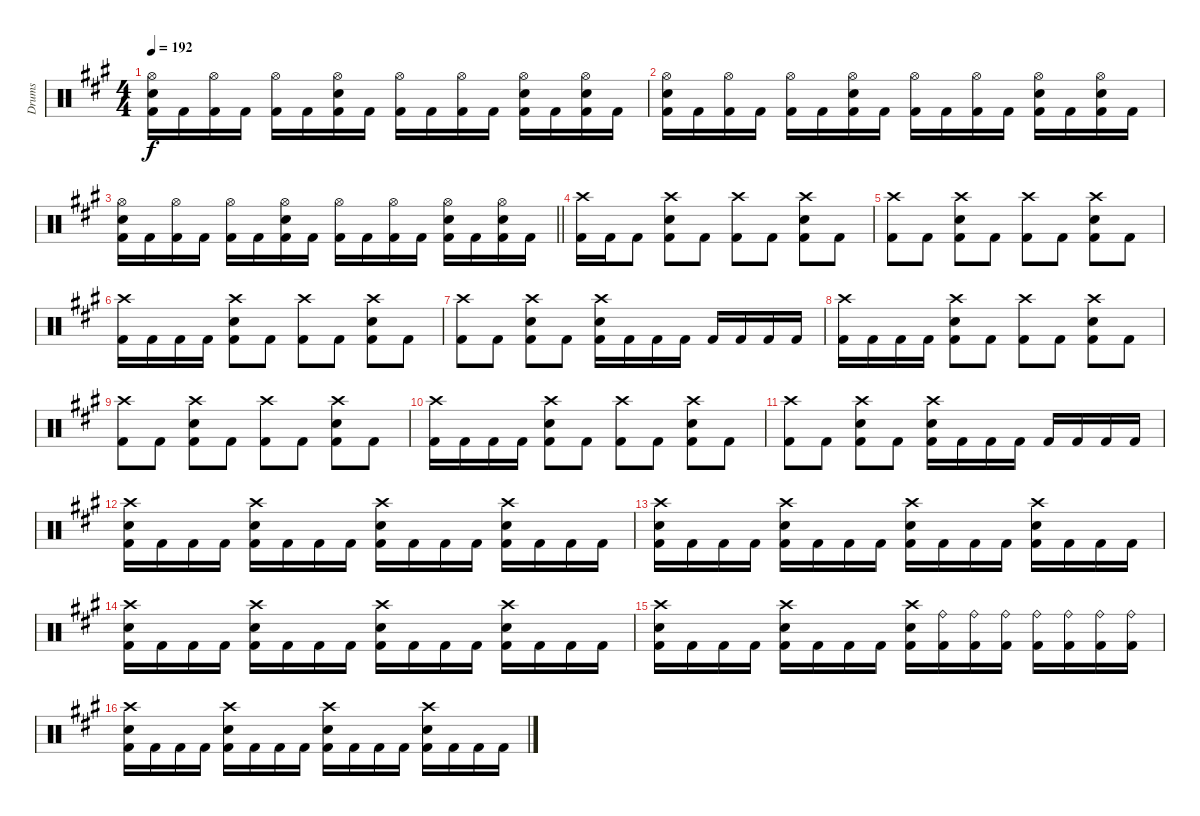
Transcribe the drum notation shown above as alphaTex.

\track ("Drums" "Drums") {instrument percussion}
\staff {score}
\articulation defaults
\ts (4 4)
\tempo 192
\clef neutral
\ks f#minor
("Hi-Hat (open)" "Snare (hit) 2" "Kick (hit) 2").16{dy f} "Kick (hit) 2".16 ("Hi-Hat (open)" "Kick (hit) 2").16 "Kick (hit) 2".16 ("Hi-Hat (open)" "Kick (hit) 2").16 "Kick (hit) 2".16 ("Hi-Hat (open)" "Snare (hit) 2" "Kick (hit) 2").16 "Kick (hit) 2".16 ("Hi-Hat (open)" "Kick (hit) 2").16 "Kick (hit) 2".16 ("Hi-Hat (open)" "Kick (hit) 2").16 "Kick (hit) 2".16 ("Hi-Hat (open)" "Snare (hit) 2" "Kick (hit) 2").16 "Kick (hit) 2".16 ("Hi-Hat (open)" "Snare (hit) 2" "Kick (hit) 2").16 "Kick (hit) 2".16 |
("Hi-Hat (open)" "Snare (hit) 2" "Kick (hit) 2").16 "Kick (hit) 2".16 ("Hi-Hat (open)" "Kick (hit) 2").16 "Kick (hit) 2".16 ("Hi-Hat (open)" "Kick (hit) 2").16 "Kick (hit) 2".16 ("Hi-Hat (open)" "Snare (hit) 2" "Kick (hit) 2").16 "Kick (hit) 2".16 ("Hi-Hat (open)" "Kick (hit) 2").16 "Kick (hit) 2".16 ("Hi-Hat (open)" "Kick (hit) 2").16 "Kick (hit) 2".16 ("Hi-Hat (open)" "Snare (hit) 2" "Kick (hit) 2").16 "Kick (hit) 2".16 ("Hi-Hat (open)" "Snare (hit) 2" "Kick (hit) 2").16 "Kick (hit) 2".16 |
\barLineRight lightlight
("Hi-Hat (open)" "Snare (hit) 2" "Kick (hit) 2").16 "Kick (hit) 2".16 ("Hi-Hat (open)" "Kick (hit) 2").16 "Kick (hit) 2".16 ("Hi-Hat (open)" "Kick (hit) 2").16 "Kick (hit) 2".16 ("Hi-Hat (open)" "Snare (hit) 2" "Kick (hit) 2").16 "Kick (hit) 2".16 ("Hi-Hat (open)" "Kick (hit) 2").16 "Kick (hit) 2".16 ("Hi-Hat (open)" "Kick (hit) 2").16 "Kick (hit) 2".16 ("Hi-Hat (open)" "Snare (hit) 2" "Kick (hit) 2").16 "Kick (hit) 2".16 ("Hi-Hat (open)" "Snare (hit) 2" "Kick (hit) 2").16 "Kick (hit) 2".16 |
("Crash high (hit)" "Kick (hit) 2").16 "Kick (hit) 2".16 "Kick (hit) 2".8 ("Crash high (hit)" "Snare (hit) 2" "Kick (hit) 2").8 "Kick (hit) 2".8 ("Crash high (hit)" "Kick (hit) 2").8 "Kick (hit) 2".8 ("Crash high (hit)" "Snare (hit) 2" "Kick (hit) 2").8 "Kick (hit) 2".8 |
("Crash high (hit)" "Kick (hit) 2").8 "Kick (hit) 2".8 ("Crash high (hit)" "Snare (hit) 2" "Kick (hit) 2").8 "Kick (hit) 2".8 ("Crash high (hit)" "Kick (hit) 2").8 "Kick (hit) 2".8 ("Crash high (hit)" "Snare (hit) 2" "Kick (hit) 2").8 "Kick (hit) 2".8 |
("Crash high (hit)" "Kick (hit) 2").16 "Kick (hit) 2".16 "Kick (hit) 2".16 "Kick (hit) 2".16 ("Crash high (hit)" "Snare (hit) 2" "Kick (hit) 2").8 "Kick (hit) 2".8 ("Crash high (hit)" "Kick (hit) 2").8 "Kick (hit) 2".8 ("Crash high (hit)" "Snare (hit) 2" "Kick (hit) 2").8 "Kick (hit) 2".8 |
("Crash high (hit)" "Kick (hit) 2").8 "Kick (hit) 2".8 ("Crash high (hit)" "Snare (hit) 2" "Kick (hit) 2").8 "Kick (hit) 2".8 ("Crash high (hit)" "Snare (hit) 2" "Kick (hit) 2").16 "Kick (hit) 2".16 "Kick (hit) 2".16 "Kick (hit) 2".16 "Kick (hit) 2".16 "Kick (hit) 2".16 "Kick (hit) 2".16 "Kick (hit) 2".16 |
("Crash high (hit)" "Kick (hit) 2").16 "Kick (hit) 2".16 "Kick (hit) 2".16 "Kick (hit) 2".16 ("Crash high (hit)" "Snare (hit) 2" "Kick (hit) 2").8 "Kick (hit) 2".8 ("Crash high (hit)" "Kick (hit) 2").8 "Kick (hit) 2".8 ("Crash high (hit)" "Snare (hit) 2" "Kick (hit) 2").8 "Kick (hit) 2".8 |
("Crash high (hit)" "Kick (hit) 2").8 "Kick (hit) 2".8 ("Crash high (hit)" "Snare (hit) 2" "Kick (hit) 2").8 "Kick (hit) 2".8 ("Crash high (hit)" "Kick (hit) 2").8 "Kick (hit) 2".8 ("Crash high (hit)" "Snare (hit) 2" "Kick (hit) 2").8 "Kick (hit) 2".8 |
("Crash high (hit)" "Kick (hit) 2").16 "Kick (hit) 2".16 "Kick (hit) 2".16 "Kick (hit) 2".16 ("Crash high (hit)" "Snare (hit) 2" "Kick (hit) 2").8 "Kick (hit) 2".8 ("Crash high (hit)" "Kick (hit) 2").8 "Kick (hit) 2".8 ("Crash high (hit)" "Snare (hit) 2" "Kick (hit) 2").8 "Kick (hit) 2".8 |
("Crash high (hit)" "Kick (hit) 2").8 "Kick (hit) 2".8 ("Crash high (hit)" "Snare (hit) 2" "Kick (hit) 2").8 "Kick (hit) 2".8 ("Crash high (hit)" "Snare (hit) 2" "Kick (hit) 2").16 "Kick (hit) 2".16 "Kick (hit) 2".16 "Kick (hit) 2".16 "Kick (hit) 2".16 "Kick (hit) 2".16 "Kick (hit) 2".16 "Kick (hit) 2".16 |
("Crash high (hit)" "Snare (hit) 2" "Kick (hit) 2").16 "Kick (hit) 2".16 "Kick (hit) 2".16 "Kick (hit) 2".16 ("Crash high (hit)" "Snare (hit) 2" "Kick (hit) 2").16 "Kick (hit) 2".16 "Kick (hit) 2".16 "Kick (hit) 2".16 ("Crash high (hit)" "Snare (hit) 2" "Kick (hit) 2").16 "Kick (hit) 2".16 "Kick (hit) 2".16 "Kick (hit) 2".16 ("Crash high (hit)" "Snare (hit) 2" "Kick (hit) 2").16 "Kick (hit) 2".16 "Kick (hit) 2".16 "Kick (hit) 2".16 |
("Crash high (hit)" "Snare (hit) 2" "Kick (hit) 2").16 "Kick (hit) 2".16 "Kick (hit) 2".16 "Kick (hit) 2".16 ("Crash high (hit)" "Snare (hit) 2" "Kick (hit) 2").16 "Kick (hit) 2".16 "Kick (hit) 2".16 "Kick (hit) 2".16 ("Crash high (hit)" "Snare (hit) 2" "Kick (hit) 2").16 "Kick (hit) 2".16 "Kick (hit) 2".16 "Kick (hit) 2".16 ("Crash high (hit)" "Snare (hit) 2" "Kick (hit) 2").16 "Kick (hit) 2".16 "Kick (hit) 2".16 "Kick (hit) 2".16 |
("Crash high (hit)" "Snare (hit) 2" "Kick (hit) 2").16 "Kick (hit) 2".16 "Kick (hit) 2".16 "Kick (hit) 2".16 ("Crash high (hit)" "Snare (hit) 2" "Kick (hit) 2").16 "Kick (hit) 2".16 "Kick (hit) 2".16 "Kick (hit) 2".16 ("Crash high (hit)" "Snare (hit) 2" "Kick (hit) 2").16 "Kick (hit) 2".16 "Kick (hit) 2".16 "Kick (hit) 2".16 ("Crash high (hit)" "Snare (hit) 2" "Kick (hit) 2").16 "Kick (hit) 2".16 "Kick (hit) 2".16 "Kick (hit) 2".16 |
("Crash high (hit)" "Snare (hit) 2" "Kick (hit) 2").16 "Kick (hit) 2".16 "Kick (hit) 2".16 "Kick (hit) 2".16 ("Crash high (hit)" "Snare (hit) 2" "Kick (hit) 2").16 "Kick (hit) 2".16 "Kick (hit) 2".16 "Kick (hit) 2".16 ("Crash high (hit)" "Snare (hit) 2" "Kick (hit) 2").16 ("Ride (bell)" "Kick (hit) 2").16 ("Ride (bell)" "Kick (hit) 2").16 ("Ride (bell)" "Kick (hit) 2").16 ("Ride (bell)" "Kick (hit) 2").16 ("Ride (bell)" "Kick (hit) 2").16 ("Ride (bell)" "Kick (hit) 2").16 ("Ride (bell)" "Kick (hit) 2").16 |
("Crash high (hit)" "Snare (hit) 2" "Kick (hit) 2").16 "Kick (hit) 2".16 "Kick (hit) 2".16 "Kick (hit) 2".16 ("Crash high (hit)" "Snare (hit) 2" "Kick (hit) 2").16 "Kick (hit) 2".16 "Kick (hit) 2".16 "Kick (hit) 2".16 ("Crash high (hit)" "Snare (hit) 2" "Kick (hit) 2").16 "Kick (hit) 2".16 "Kick (hit) 2".16 "Kick (hit) 2".16 ("Crash high (hit)" "Snare (hit) 2" "Kick (hit) 2").16 "Kick (hit) 2".16 "Kick (hit) 2".16 "Kick (hit) 2".16
